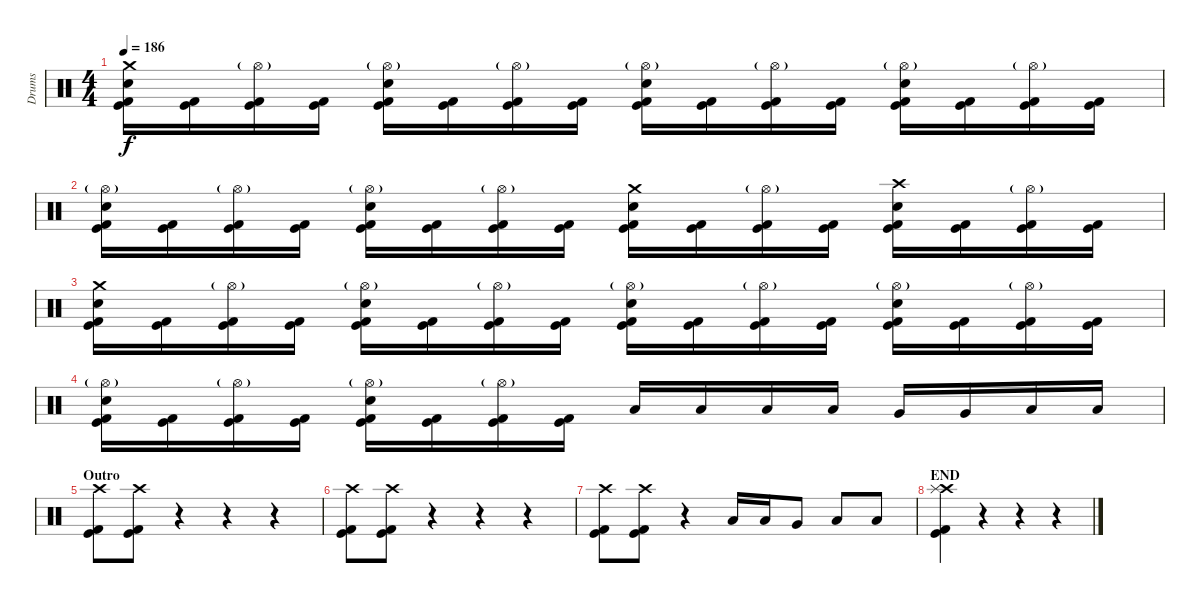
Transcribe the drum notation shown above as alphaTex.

\track ("Drums" "Drums") {instrument percussion}
\staff {score}
\articulation defaults
\ts (4 4)
\tempo 186
\clef neutral
\ks c
("Crash medium (hit)" "Electric Snare (hit)" "Kick (hit)" "Kick (hit) 2").16{dy f} ("Kick (hit)" "Kick (hit) 2").16 ("Hi-Hat (open)"{g} "Kick (hit)" "Kick (hit) 2").16 ("Kick (hit)" "Kick (hit) 2").16 ("Hi-Hat (open)"{g} "Electric Snare (hit)" "Kick (hit)" "Kick (hit) 2").16 ("Kick (hit)" "Kick (hit) 2").16 ("Hi-Hat (open)"{g} "Kick (hit)" "Kick (hit) 2").16 ("Kick (hit)" "Kick (hit) 2").16 ("Hi-Hat (open)"{g} "Electric Snare (hit)" "Kick (hit)" "Kick (hit) 2").16 ("Kick (hit)" "Kick (hit) 2").16 ("Hi-Hat (open)"{g} "Kick (hit)" "Kick (hit) 2").16 ("Kick (hit)" "Kick (hit) 2").16 ("Hi-Hat (open)"{g} "Electric Snare (hit)" "Kick (hit)" "Kick (hit) 2").16 ("Kick (hit)" "Kick (hit) 2").16 ("Hi-Hat (open)"{g} "Kick (hit)" "Kick (hit) 2").16 ("Kick (hit)" "Kick (hit) 2").16 |
("Hi-Hat (open)"{g} "Electric Snare (hit)" "Kick (hit)" "Kick (hit) 2").16 ("Kick (hit)" "Kick (hit) 2").16 ("Hi-Hat (open)"{g} "Kick (hit)" "Kick (hit) 2").16 ("Kick (hit)" "Kick (hit) 2").16 ("Hi-Hat (open)"{g} "Electric Snare (hit)" "Kick (hit)" "Kick (hit) 2").16 ("Kick (hit)" "Kick (hit) 2").16 ("Hi-Hat (open)"{g} "Kick (hit)" "Kick (hit) 2").16 ("Kick (hit)" "Kick (hit) 2").16 ("Crash medium (hit)" "Electric Snare (hit)" "Kick (hit)" "Kick (hit) 2").16 ("Kick (hit)" "Kick (hit) 2").16 ("Hi-Hat (open)"{g} "Kick (hit)" "Kick (hit) 2").16 ("Kick (hit)" "Kick (hit) 2").16 ("Crash high (hit)" "Electric Snare (hit)" "Kick (hit)" "Kick (hit) 2").16 ("Kick (hit)" "Kick (hit) 2").16 ("Hi-Hat (open)"{g} "Kick (hit)" "Kick (hit) 2").16 ("Kick (hit)" "Kick (hit) 2").16 |
("Crash medium (hit)" "Electric Snare (hit)" "Kick (hit)" "Kick (hit) 2").16 ("Kick (hit)" "Kick (hit) 2").16 ("Hi-Hat (open)"{g} "Kick (hit)" "Kick (hit) 2").16 ("Kick (hit)" "Kick (hit) 2").16 ("Hi-Hat (open)"{g} "Electric Snare (hit)" "Kick (hit)" "Kick (hit) 2").16 ("Kick (hit)" "Kick (hit) 2").16 ("Hi-Hat (open)"{g} "Kick (hit)" "Kick (hit) 2").16 ("Kick (hit)" "Kick (hit) 2").16 ("Hi-Hat (open)"{g} "Electric Snare (hit)" "Kick (hit)" "Kick (hit) 2").16 ("Kick (hit)" "Kick (hit) 2").16 ("Hi-Hat (open)"{g} "Kick (hit)" "Kick (hit) 2").16 ("Kick (hit)" "Kick (hit) 2").16 ("Hi-Hat (open)"{g} "Electric Snare (hit)" "Kick (hit)" "Kick (hit) 2").16 ("Kick (hit)" "Kick (hit) 2").16 ("Hi-Hat (open)"{g} "Kick (hit)" "Kick (hit) 2").16 ("Kick (hit)" "Kick (hit) 2").16 |
("Hi-Hat (open)"{g} "Electric Snare (hit)" "Kick (hit)" "Kick (hit) 2").16 ("Kick (hit)" "Kick (hit) 2").16 ("Hi-Hat (open)"{g} "Kick (hit)" "Kick (hit) 2").16 ("Kick (hit)" "Kick (hit) 2").16 ("Hi-Hat (open)"{g} "Electric Snare (hit)" "Kick (hit)" "Kick (hit) 2").16 ("Kick (hit)" "Kick (hit) 2").16 ("Hi-Hat (open)"{g} "Kick (hit)" "Kick (hit) 2").16 ("Kick (hit)" "Kick (hit) 2").16 "Low Tom (hit)".16 "Low Tom (hit)".16 "Low Tom (hit)".16 "Low Tom (hit)".16 "Very Low Tom (hit)".16 "Very Low Tom (hit)".16 "Low Floor Tom (hit)".16 "Low Floor Tom (hit)".16 |
\section ("" "Outro")
("Crash high (hit)" "Kick (hit)" "Kick (hit) 2").8 ("Crash high (hit)" "Kick (hit)" "Kick (hit) 2").8 r.4 r.4 r.4 |
("Crash high (hit)" "Kick (hit)" "Kick (hit) 2").8 ("Crash high (hit)" "Kick (hit)" "Kick (hit) 2").8 r.4 r.4 r.4 |
("Crash high (hit)" "Kick (hit)" "Kick (hit) 2").8 ("Crash high (hit)" "Kick (hit)" "Kick (hit) 2").8 r.4 "Low Tom (hit)".16 "Low Tom (hit)".16 "Very Low Tom (hit)".8 "Low Tom (hit)".8 "Low Floor Tom (hit)".8 |
\section ("" "END")
("Crash high (hit)" "Splash (hit)" "Kick (hit)" "Kick (hit) 2").4 r.4 r.4 r.4
